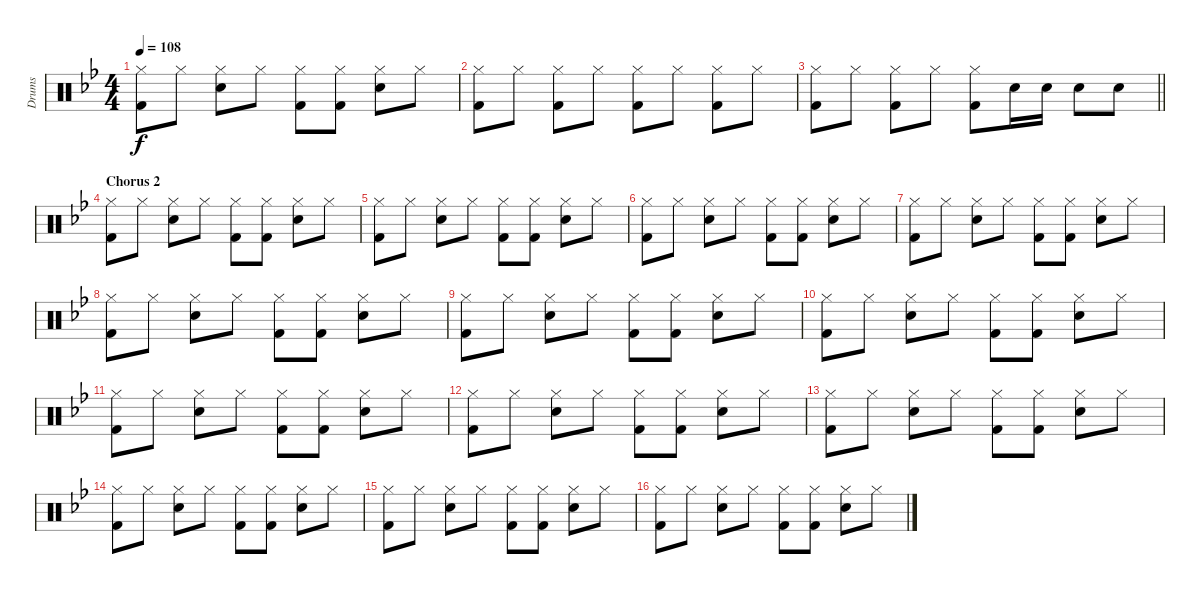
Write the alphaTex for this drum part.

\track ("Drums" "Drums") {instrument percussion}
\staff {score}
\articulation defaults
\ts (4 4)
\tempo 108
\clef neutral
\ks bb
("Hi-Hat (closed)" "Kick (hit) 2").8{dy f} "Hi-Hat (closed)".8 ("Hi-Hat (closed)" "Snare (hit) 2").8 "Hi-Hat (closed)".8 ("Hi-Hat (closed)" "Kick (hit) 2").8 ("Hi-Hat (closed)" "Kick (hit) 2").8 ("Hi-Hat (closed)" "Snare (hit) 2").8 "Hi-Hat (closed)".8 |
("Hi-Hat (closed)" "Kick (hit) 2").8 "Hi-Hat (closed)".8 ("Hi-Hat (closed)" "Kick (hit) 2").8 "Hi-Hat (closed)".8 ("Hi-Hat (closed)" "Kick (hit) 2").8 "Hi-Hat (closed)".8 ("Hi-Hat (closed)" "Kick (hit) 2").8 "Hi-Hat (closed)".8 |
\barLineRight lightlight
("Hi-Hat (closed)" "Kick (hit) 2").8 "Hi-Hat (closed)".8 ("Hi-Hat (closed)" "Kick (hit) 2").8 "Hi-Hat (closed)".8 ("Hi-Hat (closed)" "Kick (hit) 2").8 "Snare (hit) 2".16 "Snare (hit) 2".16 "Snare (hit) 2".8 "Snare (hit) 2".8 |
\section ("" "Chorus 2")
("Hi-Hat (closed)" "Kick (hit) 2").8 "Hi-Hat (closed)".8 ("Hi-Hat (closed)" "Snare (hit) 2").8 "Hi-Hat (closed)".8 ("Hi-Hat (closed)" "Kick (hit) 2").8 ("Hi-Hat (closed)" "Kick (hit) 2").8 ("Hi-Hat (closed)" "Snare (hit) 2").8 "Hi-Hat (closed)".8 |
("Hi-Hat (closed)" "Kick (hit) 2").8 "Hi-Hat (closed)".8 ("Hi-Hat (closed)" "Snare (hit) 2").8 "Hi-Hat (closed)".8 ("Hi-Hat (closed)" "Kick (hit) 2").8 ("Hi-Hat (closed)" "Kick (hit) 2").8 ("Hi-Hat (closed)" "Snare (hit) 2").8 "Hi-Hat (closed)".8 |
("Hi-Hat (closed)" "Kick (hit) 2").8 "Hi-Hat (closed)".8 ("Hi-Hat (closed)" "Snare (hit) 2").8 "Hi-Hat (closed)".8 ("Hi-Hat (closed)" "Kick (hit) 2").8 ("Hi-Hat (closed)" "Kick (hit) 2").8 ("Hi-Hat (closed)" "Snare (hit) 2").8 "Hi-Hat (closed)".8 |
("Hi-Hat (closed)" "Kick (hit) 2").8 "Hi-Hat (closed)".8 ("Hi-Hat (closed)" "Snare (hit) 2").8 "Hi-Hat (closed)".8 ("Hi-Hat (closed)" "Kick (hit) 2").8 ("Hi-Hat (closed)" "Kick (hit) 2").8 ("Hi-Hat (closed)" "Snare (hit) 2").8 "Hi-Hat (closed)".8 |
("Hi-Hat (closed)" "Kick (hit) 2").8 "Hi-Hat (closed)".8 ("Hi-Hat (closed)" "Snare (hit) 2").8 "Hi-Hat (closed)".8 ("Hi-Hat (closed)" "Kick (hit) 2").8 ("Hi-Hat (closed)" "Kick (hit) 2").8 ("Hi-Hat (closed)" "Snare (hit) 2").8 "Hi-Hat (closed)".8 |
("Hi-Hat (closed)" "Kick (hit) 2").8 "Hi-Hat (closed)".8 ("Hi-Hat (closed)" "Snare (hit) 2").8 "Hi-Hat (closed)".8 ("Hi-Hat (closed)" "Kick (hit) 2").8 ("Hi-Hat (closed)" "Kick (hit) 2").8 ("Hi-Hat (closed)" "Snare (hit) 2").8 "Hi-Hat (closed)".8 |
("Hi-Hat (closed)" "Kick (hit) 2").8 "Hi-Hat (closed)".8 ("Hi-Hat (closed)" "Snare (hit) 2").8 "Hi-Hat (closed)".8 ("Hi-Hat (closed)" "Kick (hit) 2").8 ("Hi-Hat (closed)" "Kick (hit) 2").8 ("Hi-Hat (closed)" "Snare (hit) 2").8 "Hi-Hat (closed)".8 |
("Hi-Hat (closed)" "Kick (hit) 2").8 "Hi-Hat (closed)".8 ("Hi-Hat (closed)" "Snare (hit) 2").8 "Hi-Hat (closed)".8 ("Hi-Hat (closed)" "Kick (hit) 2").8 ("Hi-Hat (closed)" "Kick (hit) 2").8 ("Hi-Hat (closed)" "Snare (hit) 2").8 "Hi-Hat (closed)".8 |
("Hi-Hat (closed)" "Kick (hit) 2").8 "Hi-Hat (closed)".8 ("Hi-Hat (closed)" "Snare (hit) 2").8 "Hi-Hat (closed)".8 ("Hi-Hat (closed)" "Kick (hit) 2").8 ("Hi-Hat (closed)" "Kick (hit) 2").8 ("Hi-Hat (closed)" "Snare (hit) 2").8 "Hi-Hat (closed)".8 |
("Hi-Hat (closed)" "Kick (hit) 2").8 "Hi-Hat (closed)".8 ("Hi-Hat (closed)" "Snare (hit) 2").8 "Hi-Hat (closed)".8 ("Hi-Hat (closed)" "Kick (hit) 2").8 ("Hi-Hat (closed)" "Kick (hit) 2").8 ("Hi-Hat (closed)" "Snare (hit) 2").8 "Hi-Hat (closed)".8 |
("Hi-Hat (closed)" "Kick (hit) 2").8 "Hi-Hat (closed)".8 ("Hi-Hat (closed)" "Snare (hit) 2").8 "Hi-Hat (closed)".8 ("Hi-Hat (closed)" "Kick (hit) 2").8 ("Hi-Hat (closed)" "Kick (hit) 2").8 ("Hi-Hat (closed)" "Snare (hit) 2").8 "Hi-Hat (closed)".8 |
("Hi-Hat (closed)" "Kick (hit) 2").8 "Hi-Hat (closed)".8 ("Hi-Hat (closed)" "Snare (hit) 2").8 "Hi-Hat (closed)".8 ("Hi-Hat (closed)" "Kick (hit) 2").8 ("Hi-Hat (closed)" "Kick (hit) 2").8 ("Hi-Hat (closed)" "Snare (hit) 2").8 "Hi-Hat (closed)".8 |
("Hi-Hat (closed)" "Kick (hit) 2").8 "Hi-Hat (closed)".8 ("Hi-Hat (closed)" "Snare (hit) 2").8 "Hi-Hat (closed)".8 ("Hi-Hat (closed)" "Kick (hit) 2").8 ("Hi-Hat (closed)" "Kick (hit) 2").8 ("Hi-Hat (closed)" "Snare (hit) 2").8 "Hi-Hat (closed)".8
